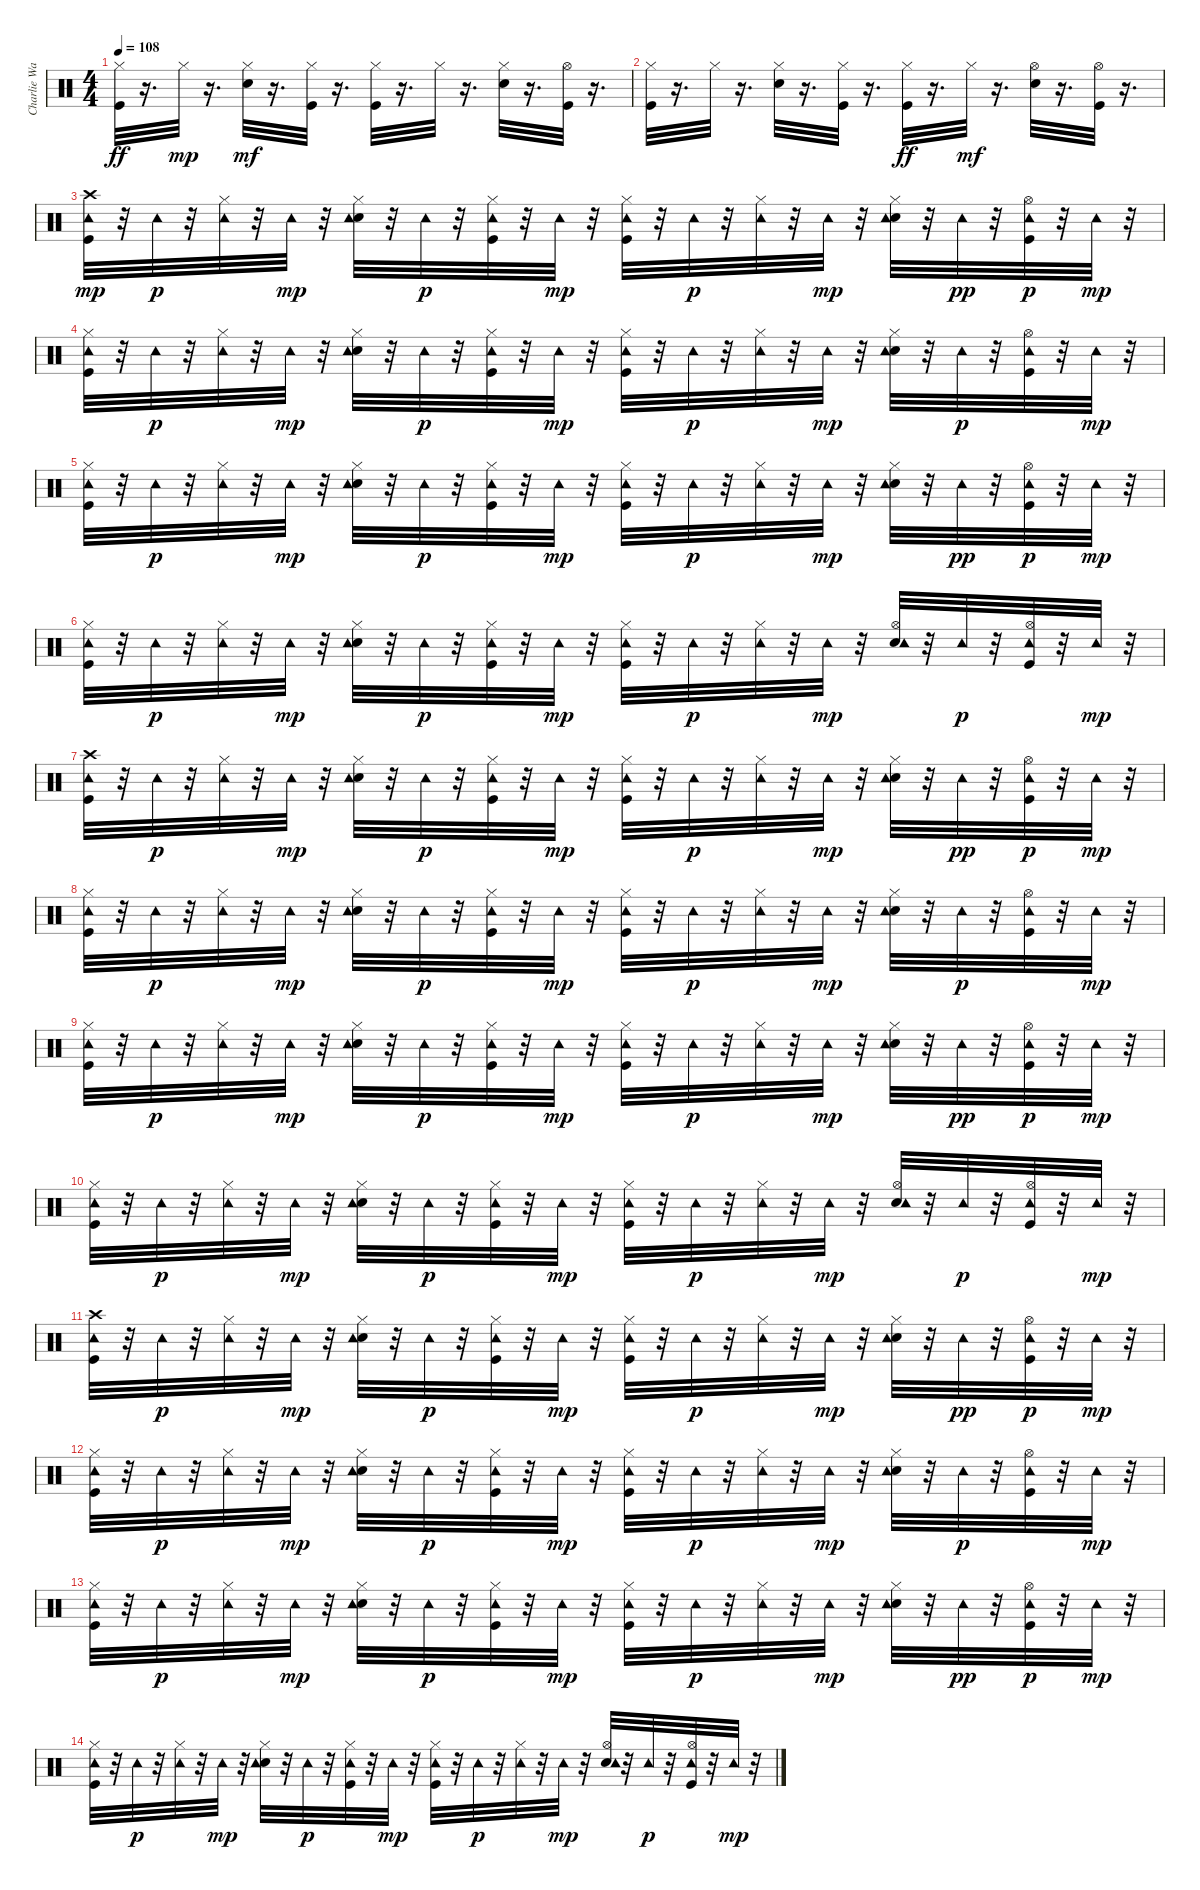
\track ("Charlie Watts" "Charlie Wa") {instrument percussion}
\staff {score}
\articulation defaults
\ts (4 4)
\tempo 108
\clef neutral
\ks c
("Kick (hit)" "Hi-Hat (closed)").32{dy ff} r.16{d} "Hi-Hat (closed)".32{dy mp} r.16{d} ("Electric Snare (hit)" "Hi-Hat (closed)").32{dy mf} r.16{d} ("Kick (hit)" "Hi-Hat (closed)").32 r.16{d} ("Kick (hit)" "Hi-Hat (closed)").32 r.16{d} "Hi-Hat (closed)".32 r.16{d} ("Electric Snare (hit)" "Hi-Hat (closed)").32 r.16{d} ("Kick (hit)" "Hi-Hat (open)").32 r.16{d} |
("Kick (hit)" "Hi-Hat (closed)").32 r.16{d} "Hi-Hat (closed)".32 r.16{d} ("Electric Snare (hit)" "Hi-Hat (closed)").32 r.16{d} ("Kick (hit)" "Hi-Hat (closed)").32 r.16{d} ("Kick (hit)" "Hi-Hat (closed)").32{dy ff} r.16{d} "Hi-Hat (closed)".32{dy mf} r.16{d} ("Electric Snare (hit)" "Hi-Hat (open)").32 r.16{d} ("Kick (hit)" "Hi-Hat (open)").32 r.16{d} |
("Kick (hit)" "Crash high (hit)" "Tambourine (hit)").32{dy mp} r.32 "Tambourine (hit)".32{dy p} r.32 ("Hi-Hat (closed)" "Tambourine (hit)").32 r.32 "Tambourine (hit)".32{dy mp} r.32 ("Electric Snare (hit)" "Hi-Hat (closed)" "Tambourine (hit)").32 r.32 "Tambourine (hit)".32{dy p} r.32 ("Kick (hit)" "Hi-Hat (closed)" "Tambourine (hit)").32 r.32 "Tambourine (hit)".32{dy mp} r.32 ("Kick (hit)" "Hi-Hat (closed)" "Tambourine (hit)").32 r.32 "Tambourine (hit)".32{dy p} r.32 ("Hi-Hat (closed)" "Tambourine (hit)").32 r.32 "Tambourine (hit)".32{dy mp} r.32 ("Electric Snare (hit)" "Hi-Hat (closed)" "Tambourine (hit)").32 r.32 "Tambourine (hit)".32{dy pp} r.32 ("Kick (hit)" "Hi-Hat (open)" "Tambourine (hit)").32{dy p} r.32 "Tambourine (hit)".32{dy mp} r.32 |
("Kick (hit)" "Hi-Hat (closed)" "Tambourine (hit)").32 r.32 "Tambourine (hit)".32{dy p} r.32 ("Hi-Hat (closed)" "Tambourine (hit)").32 r.32 "Tambourine (hit)".32{dy mp} r.32 ("Electric Snare (hit)" "Hi-Hat (closed)" "Tambourine (hit)").32 r.32 "Tambourine (hit)".32{dy p} r.32 ("Kick (hit)" "Hi-Hat (closed)" "Tambourine (hit)").32 r.32 "Tambourine (hit)".32{dy mp} r.32 ("Kick (hit)" "Hi-Hat (closed)" "Tambourine (hit)").32 r.32 "Tambourine (hit)".32{dy p} r.32 ("Hi-Hat (closed)" "Tambourine (hit)").32 r.32 "Tambourine (hit)".32{dy mp} r.32 ("Electric Snare (hit)" "Hi-Hat (closed)" "Tambourine (hit)").32 r.32 "Tambourine (hit)".32{dy p} r.32 ("Kick (hit)" "Hi-Hat (open)" "Tambourine (hit)").32 r.32 "Tambourine (hit)".32{dy mp} r.32 |
("Kick (hit)" "Hi-Hat (closed)" "Tambourine (hit)").32 r.32 "Tambourine (hit)".32{dy p} r.32 ("Hi-Hat (closed)" "Tambourine (hit)").32 r.32 "Tambourine (hit)".32{dy mp} r.32 ("Electric Snare (hit)" "Hi-Hat (closed)" "Tambourine (hit)").32 r.32 "Tambourine (hit)".32{dy p} r.32 ("Kick (hit)" "Hi-Hat (closed)" "Tambourine (hit)").32 r.32 "Tambourine (hit)".32{dy mp} r.32 ("Kick (hit)" "Hi-Hat (closed)" "Tambourine (hit)").32 r.32 "Tambourine (hit)".32{dy p} r.32 ("Hi-Hat (closed)" "Tambourine (hit)").32 r.32 "Tambourine (hit)".32{dy mp} r.32 ("Electric Snare (hit)" "Hi-Hat (closed)" "Tambourine (hit)").32 r.32 "Tambourine (hit)".32{dy pp} r.32 ("Kick (hit)" "Hi-Hat (open)" "Tambourine (hit)").32{dy p} r.32 "Tambourine (hit)".32{dy mp} r.32 |
("Kick (hit)" "Hi-Hat (closed)" "Tambourine (hit)").32 r.32 "Tambourine (hit)".32{dy p} r.32 ("Hi-Hat (closed)" "Tambourine (hit)").32 r.32 "Tambourine (hit)".32{dy mp} r.32 ("Electric Snare (hit)" "Hi-Hat (closed)" "Tambourine (hit)").32 r.32 "Tambourine (hit)".32{dy p} r.32 ("Kick (hit)" "Hi-Hat (closed)" "Tambourine (hit)").32 r.32 "Tambourine (hit)".32{dy mp} r.32 ("Kick (hit)" "Hi-Hat (closed)" "Tambourine (hit)").32 r.32 "Tambourine (hit)".32{dy p} r.32 ("Hi-Hat (closed)" "Tambourine (hit)").32 r.32 "Tambourine (hit)".32{dy mp} r.32 ("Electric Snare (hit)" "Hi-Hat (open)" "Tambourine (hit)").32 r.32 "Tambourine (hit)".32{dy p} r.32 ("Kick (hit)" "Hi-Hat (open)" "Tambourine (hit)").32 r.32 "Tambourine (hit)".32{dy mp} r.32 |
("Kick (hit)" "Crash high (hit)" "Tambourine (hit)").32 r.32 "Tambourine (hit)".32{dy p} r.32 ("Hi-Hat (closed)" "Tambourine (hit)").32 r.32 "Tambourine (hit)".32{dy mp} r.32 ("Electric Snare (hit)" "Hi-Hat (closed)" "Tambourine (hit)").32 r.32 "Tambourine (hit)".32{dy p} r.32 ("Kick (hit)" "Hi-Hat (closed)" "Tambourine (hit)").32 r.32 "Tambourine (hit)".32{dy mp} r.32 ("Kick (hit)" "Hi-Hat (closed)" "Tambourine (hit)").32 r.32 "Tambourine (hit)".32{dy p} r.32 ("Hi-Hat (closed)" "Tambourine (hit)").32 r.32 "Tambourine (hit)".32{dy mp} r.32 ("Electric Snare (hit)" "Hi-Hat (closed)" "Tambourine (hit)").32 r.32 "Tambourine (hit)".32{dy pp} r.32 ("Kick (hit)" "Hi-Hat (open)" "Tambourine (hit)").32{dy p} r.32 "Tambourine (hit)".32{dy mp} r.32 |
("Kick (hit)" "Hi-Hat (closed)" "Tambourine (hit)").32 r.32 "Tambourine (hit)".32{dy p} r.32 ("Hi-Hat (closed)" "Tambourine (hit)").32 r.32 "Tambourine (hit)".32{dy mp} r.32 ("Electric Snare (hit)" "Hi-Hat (closed)" "Tambourine (hit)").32 r.32 "Tambourine (hit)".32{dy p} r.32 ("Kick (hit)" "Hi-Hat (closed)" "Tambourine (hit)").32 r.32 "Tambourine (hit)".32{dy mp} r.32 ("Kick (hit)" "Hi-Hat (closed)" "Tambourine (hit)").32 r.32 "Tambourine (hit)".32{dy p} r.32 ("Hi-Hat (closed)" "Tambourine (hit)").32 r.32 "Tambourine (hit)".32{dy mp} r.32 ("Electric Snare (hit)" "Hi-Hat (closed)" "Tambourine (hit)").32 r.32 "Tambourine (hit)".32{dy p} r.32 ("Kick (hit)" "Hi-Hat (open)" "Tambourine (hit)").32 r.32 "Tambourine (hit)".32{dy mp} r.32 |
("Kick (hit)" "Hi-Hat (closed)" "Tambourine (hit)").32 r.32 "Tambourine (hit)".32{dy p} r.32 ("Hi-Hat (closed)" "Tambourine (hit)").32 r.32 "Tambourine (hit)".32{dy mp} r.32 ("Electric Snare (hit)" "Hi-Hat (closed)" "Tambourine (hit)").32 r.32 "Tambourine (hit)".32{dy p} r.32 ("Kick (hit)" "Hi-Hat (closed)" "Tambourine (hit)").32 r.32 "Tambourine (hit)".32{dy mp} r.32 ("Kick (hit)" "Hi-Hat (closed)" "Tambourine (hit)").32 r.32 "Tambourine (hit)".32{dy p} r.32 ("Hi-Hat (closed)" "Tambourine (hit)").32 r.32 "Tambourine (hit)".32{dy mp} r.32 ("Electric Snare (hit)" "Hi-Hat (closed)" "Tambourine (hit)").32 r.32 "Tambourine (hit)".32{dy pp} r.32 ("Kick (hit)" "Hi-Hat (open)" "Tambourine (hit)").32{dy p} r.32 "Tambourine (hit)".32{dy mp} r.32 |
("Kick (hit)" "Hi-Hat (closed)" "Tambourine (hit)").32 r.32 "Tambourine (hit)".32{dy p} r.32 ("Hi-Hat (closed)" "Tambourine (hit)").32 r.32 "Tambourine (hit)".32{dy mp} r.32 ("Electric Snare (hit)" "Hi-Hat (closed)" "Tambourine (hit)").32 r.32 "Tambourine (hit)".32{dy p} r.32 ("Kick (hit)" "Hi-Hat (closed)" "Tambourine (hit)").32 r.32 "Tambourine (hit)".32{dy mp} r.32 ("Kick (hit)" "Hi-Hat (closed)" "Tambourine (hit)").32 r.32 "Tambourine (hit)".32{dy p} r.32 ("Hi-Hat (closed)" "Tambourine (hit)").32 r.32 "Tambourine (hit)".32{dy mp} r.32 ("Electric Snare (hit)" "Hi-Hat (open)" "Tambourine (hit)").32 r.32 "Tambourine (hit)".32{dy p} r.32 ("Kick (hit)" "Hi-Hat (open)" "Tambourine (hit)").32 r.32 "Tambourine (hit)".32{dy mp} r.32 |
("Kick (hit)" "Crash high (hit)" "Tambourine (hit)").32 r.32 "Tambourine (hit)".32{dy p} r.32 ("Hi-Hat (closed)" "Tambourine (hit)").32 r.32 "Tambourine (hit)".32{dy mp} r.32 ("Electric Snare (hit)" "Hi-Hat (closed)" "Tambourine (hit)").32 r.32 "Tambourine (hit)".32{dy p} r.32 ("Kick (hit)" "Hi-Hat (closed)" "Tambourine (hit)").32 r.32 "Tambourine (hit)".32{dy mp} r.32 ("Kick (hit)" "Hi-Hat (closed)" "Tambourine (hit)").32 r.32 "Tambourine (hit)".32{dy p} r.32 ("Hi-Hat (closed)" "Tambourine (hit)").32 r.32 "Tambourine (hit)".32{dy mp} r.32 ("Electric Snare (hit)" "Hi-Hat (closed)" "Tambourine (hit)").32 r.32 "Tambourine (hit)".32{dy pp} r.32 ("Kick (hit)" "Hi-Hat (open)" "Tambourine (hit)").32{dy p} r.32 "Tambourine (hit)".32{dy mp} r.32 |
("Kick (hit)" "Hi-Hat (closed)" "Tambourine (hit)").32 r.32 "Tambourine (hit)".32{dy p} r.32 ("Hi-Hat (closed)" "Tambourine (hit)").32 r.32 "Tambourine (hit)".32{dy mp} r.32 ("Electric Snare (hit)" "Hi-Hat (closed)" "Tambourine (hit)").32 r.32 "Tambourine (hit)".32{dy p} r.32 ("Kick (hit)" "Hi-Hat (closed)" "Tambourine (hit)").32 r.32 "Tambourine (hit)".32{dy mp} r.32 ("Kick (hit)" "Hi-Hat (closed)" "Tambourine (hit)").32 r.32 "Tambourine (hit)".32{dy p} r.32 ("Hi-Hat (closed)" "Tambourine (hit)").32 r.32 "Tambourine (hit)".32{dy mp} r.32 ("Electric Snare (hit)" "Hi-Hat (closed)" "Tambourine (hit)").32 r.32 "Tambourine (hit)".32{dy p} r.32 ("Kick (hit)" "Hi-Hat (open)" "Tambourine (hit)").32 r.32 "Tambourine (hit)".32{dy mp} r.32 |
("Kick (hit)" "Hi-Hat (closed)" "Tambourine (hit)").32 r.32 "Tambourine (hit)".32{dy p} r.32 ("Hi-Hat (closed)" "Tambourine (hit)").32 r.32 "Tambourine (hit)".32{dy mp} r.32 ("Electric Snare (hit)" "Hi-Hat (closed)" "Tambourine (hit)").32 r.32 "Tambourine (hit)".32{dy p} r.32 ("Kick (hit)" "Hi-Hat (closed)" "Tambourine (hit)").32 r.32 "Tambourine (hit)".32{dy mp} r.32 ("Kick (hit)" "Hi-Hat (closed)" "Tambourine (hit)").32 r.32 "Tambourine (hit)".32{dy p} r.32 ("Hi-Hat (closed)" "Tambourine (hit)").32 r.32 "Tambourine (hit)".32{dy mp} r.32 ("Electric Snare (hit)" "Hi-Hat (closed)" "Tambourine (hit)").32 r.32 "Tambourine (hit)".32{dy pp} r.32 ("Kick (hit)" "Hi-Hat (open)" "Tambourine (hit)").32{dy p} r.32 "Tambourine (hit)".32{dy mp} r.32 |
("Kick (hit)" "Hi-Hat (closed)" "Tambourine (hit)").32 r.32 "Tambourine (hit)".32{dy p} r.32 ("Hi-Hat (closed)" "Tambourine (hit)").32 r.32 "Tambourine (hit)".32{dy mp} r.32 ("Electric Snare (hit)" "Hi-Hat (closed)" "Tambourine (hit)").32 r.32 "Tambourine (hit)".32{dy p} r.32 ("Kick (hit)" "Hi-Hat (closed)" "Tambourine (hit)").32 r.32 "Tambourine (hit)".32{dy mp} r.32 ("Kick (hit)" "Hi-Hat (closed)" "Tambourine (hit)").32 r.32 "Tambourine (hit)".32{dy p} r.32 ("Hi-Hat (closed)" "Tambourine (hit)").32 r.32 "Tambourine (hit)".32{dy mp} r.32 ("Electric Snare (hit)" "Hi-Hat (open)" "Tambourine (hit)").32 r.32 "Tambourine (hit)".32{dy p} r.32 ("Kick (hit)" "Hi-Hat (open)" "Tambourine (hit)").32 r.32 "Tambourine (hit)".32{dy mp} r.32
